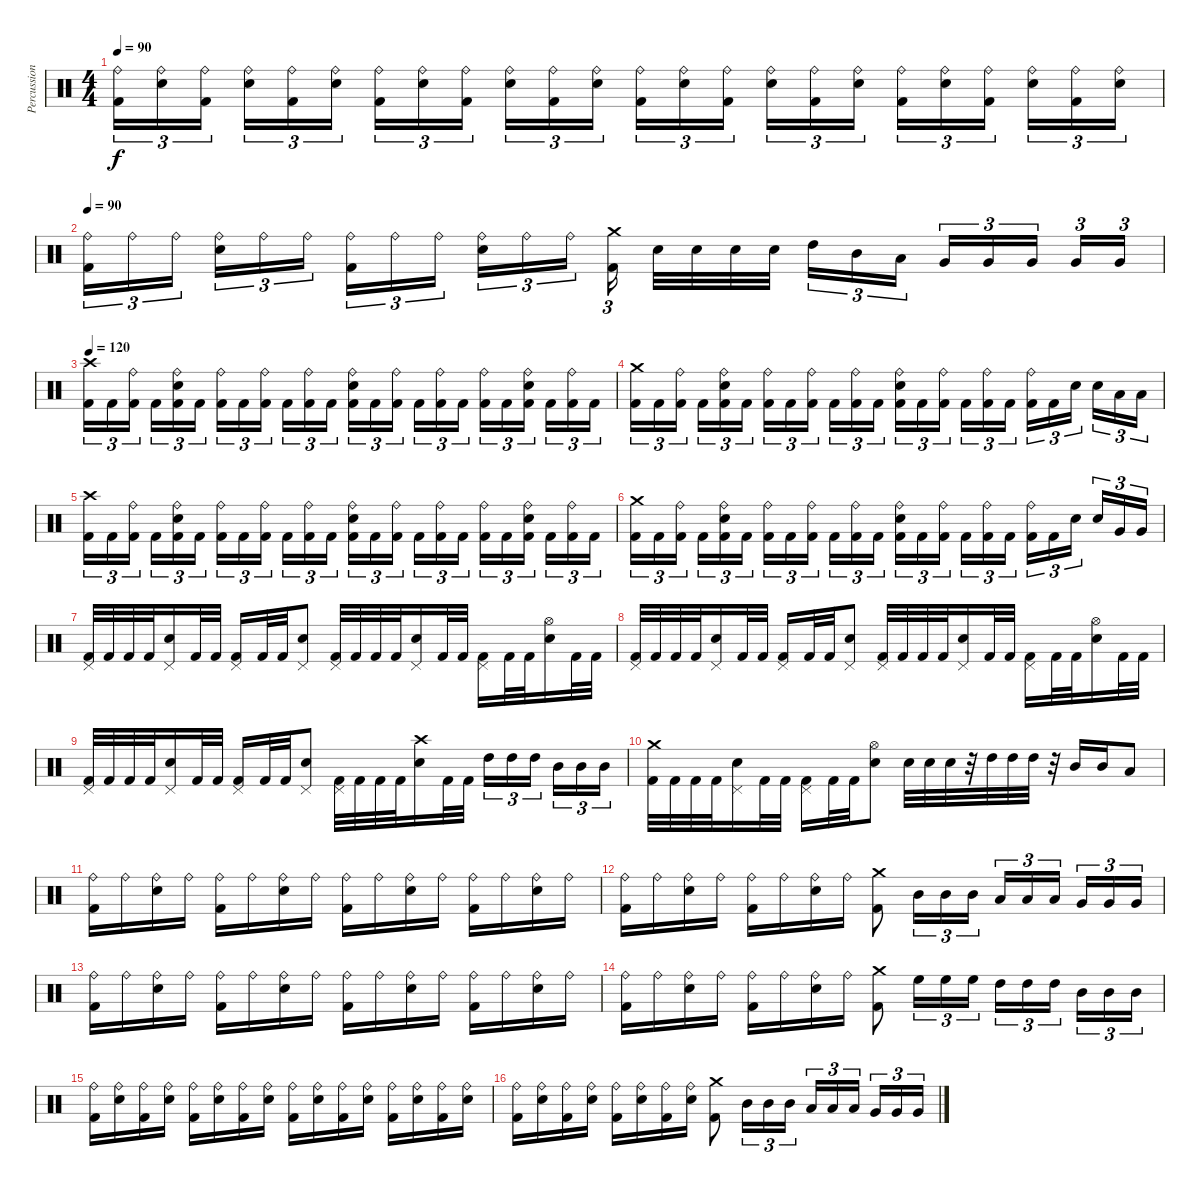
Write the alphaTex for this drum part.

\track ("Percussion" "Percussion") {instrument percussion}
\staff {score}
\articulation defaults
\ts (4 4)
\tempo 90
\clef neutral
\ks c
("Ride (bell)" "Kick (hit) 2").16{tu (3 2) dy f} ("Ride (bell)" "Electric Snare (hit)").16{tu (3 2)} ("Ride (bell)" "Kick (hit) 2").16{tu (3 2)} ("Ride (bell)" "Electric Snare (hit)").16{tu (3 2)} ("Ride (bell)" "Kick (hit) 2").16{tu (3 2)} ("Ride (bell)" "Electric Snare (hit)").16{tu (3 2)} ("Ride (bell)" "Kick (hit) 2").16{tu (3 2)} ("Ride (bell)" "Electric Snare (hit)").16{tu (3 2)} ("Ride (bell)" "Kick (hit) 2").16{tu (3 2)} ("Ride (bell)" "Electric Snare (hit)").16{tu (3 2)} ("Ride (bell)" "Kick (hit) 2").16{tu (3 2)} ("Ride (bell)" "Electric Snare (hit)").16{tu (3 2)} ("Ride (bell)" "Kick (hit) 2").16{tu (3 2)} ("Ride (bell)" "Electric Snare (hit)").16{tu (3 2)} ("Ride (bell)" "Kick (hit) 2").16{tu (3 2)} ("Ride (bell)" "Electric Snare (hit)").16{tu (3 2)} ("Ride (bell)" "Kick (hit) 2").16{tu (3 2)} ("Ride (bell)" "Electric Snare (hit)").16{tu (3 2)} ("Ride (bell)" "Kick (hit) 2").16{tu (3 2)} ("Ride (bell)" "Electric Snare (hit)").16{tu (3 2)} ("Ride (bell)" "Kick (hit) 2").16{tu (3 2)} ("Ride (bell)" "Electric Snare (hit)").16{tu (3 2)} ("Ride (bell)" "Kick (hit) 2").16{tu (3 2)} ("Ride (bell)" "Electric Snare (hit)").16{tu (3 2)} |
\tempo 90
("Ride (bell)" "Kick (hit) 2").16{tu (3 2)} "Ride (bell)".16{tu (3 2)} "Ride (bell)".16{tu (3 2)} ("Ride (bell)" "Electric Snare (hit)").16{tu (3 2)} "Ride (bell)".16{tu (3 2)} "Ride (bell)".16{tu (3 2)} ("Ride (bell)" "Kick (hit) 2").16{tu (3 2)} "Ride (bell)".16{tu (3 2)} "Ride (bell)".16{tu (3 2)} ("Ride (bell)" "Electric Snare (hit)").16{tu (3 2)} "Ride (bell)".16{tu (3 2)} "Ride (bell)".16{tu (3 2)} ("Crash medium (hit)" "Kick (hit) 2").16{tu (3 2)} "Electric Snare (hit)".32 "Electric Snare (hit)".32 "Electric Snare (hit)".32 "Electric Snare (hit)".32 "High Tom (hit)".16{tu (3 2)} "Mid Tom (hit)".16{tu (3 2)} "Low Tom (hit)".16{tu (3 2)} "Very Low Tom (hit)".16{tu (3 2)} "Very Low Tom (hit)".16{tu (3 2)} "Very Low Tom (hit)".16{tu (3 2)} "Very Low Tom (hit)".16{tu (3 2)} "Very Low Tom (hit)".16{tu (3 2)} |
\tempo 120
("Crash high (hit)" "Kick (hit) 2").16{tu (3 2)} "Kick (hit) 2".16{tu (3 2)} ("Ride (bell)" "Kick (hit) 2").16{tu (3 2)} "Kick (hit) 2".16{tu (3 2)} ("Ride (bell)" "Electric Snare (hit)" "Kick (hit) 2").16{tu (3 2)} "Kick (hit) 2".16{tu (3 2)} ("Ride (bell)" "Kick (hit) 2").16{tu (3 2)} "Kick (hit) 2".16{tu (3 2)} ("Ride (bell)" "Kick (hit) 2").16{tu (3 2)} "Kick (hit) 2".16{tu (3 2)} ("Ride (bell)" "Kick (hit) 2").16{tu (3 2)} "Kick (hit) 2".16{tu (3 2)} ("Ride (bell)" "Electric Snare (hit)" "Kick (hit) 2").16{tu (3 2)} "Kick (hit) 2".16{tu (3 2)} ("Ride (bell)" "Kick (hit) 2").16{tu (3 2)} "Kick (hit) 2".16{tu (3 2)} ("Ride (bell)" "Kick (hit) 2").16{tu (3 2)} "Kick (hit) 2".16{tu (3 2)} ("Ride (bell)" "Kick (hit) 2").16{tu (3 2)} "Kick (hit) 2".16{tu (3 2)} ("Ride (bell)" "Electric Snare (hit)" "Kick (hit) 2").16{tu (3 2)} "Kick (hit) 2".16{tu (3 2)} ("Ride (bell)" "Kick (hit) 2").16{tu (3 2)} "Kick (hit) 2".16{tu (3 2)} |
("Crash medium (hit)" "Kick (hit) 2").16{tu (3 2)} "Kick (hit) 2".16{tu (3 2)} ("Ride (bell)" "Kick (hit) 2").16{tu (3 2)} "Kick (hit) 2".16{tu (3 2)} ("Ride (bell)" "Electric Snare (hit)" "Kick (hit) 2").16{tu (3 2)} "Kick (hit) 2".16{tu (3 2)} ("Ride (bell)" "Kick (hit) 2").16{tu (3 2)} "Kick (hit) 2".16{tu (3 2)} ("Ride (bell)" "Kick (hit) 2").16{tu (3 2)} "Kick (hit) 2".16{tu (3 2)} ("Ride (bell)" "Kick (hit) 2").16{tu (3 2)} "Kick (hit) 2".16{tu (3 2)} ("Ride (bell)" "Electric Snare (hit)" "Kick (hit) 2").16{tu (3 2)} "Kick (hit) 2".16{tu (3 2)} ("Ride (bell)" "Kick (hit) 2").16{tu (3 2)} "Kick (hit) 2".16{tu (3 2)} ("Ride (bell)" "Kick (hit) 2").16{tu (3 2)} "Kick (hit) 2".16{tu (3 2)} ("Ride (bell)" "Kick (hit) 2").16{tu (3 2)} "Kick (hit) 2".16{tu (3 2)} "Electric Snare (hit)".16{tu (3 2)} "Electric Snare (hit)".16{tu (3 2)} "Low Tom (hit)".16{tu (3 2)} "Low Tom (hit)".16{tu (3 2)} |
("Crash high (hit)" "Kick (hit) 2").16{tu (3 2)} "Kick (hit) 2".16{tu (3 2)} ("Ride (bell)" "Kick (hit) 2").16{tu (3 2)} "Kick (hit) 2".16{tu (3 2)} ("Ride (bell)" "Electric Snare (hit)" "Kick (hit) 2").16{tu (3 2)} "Kick (hit) 2".16{tu (3 2)} ("Ride (bell)" "Kick (hit) 2").16{tu (3 2)} "Kick (hit) 2".16{tu (3 2)} ("Ride (bell)" "Kick (hit) 2").16{tu (3 2)} "Kick (hit) 2".16{tu (3 2)} ("Ride (bell)" "Kick (hit) 2").16{tu (3 2)} "Kick (hit) 2".16{tu (3 2)} ("Ride (bell)" "Electric Snare (hit)" "Kick (hit) 2").16{tu (3 2)} "Kick (hit) 2".16{tu (3 2)} ("Ride (bell)" "Kick (hit) 2").16{tu (3 2)} "Kick (hit) 2".16{tu (3 2)} ("Ride (bell)" "Kick (hit) 2").16{tu (3 2)} "Kick (hit) 2".16{tu (3 2)} ("Ride (bell)" "Kick (hit) 2").16{tu (3 2)} "Kick (hit) 2".16{tu (3 2)} ("Ride (bell)" "Electric Snare (hit)" "Kick (hit) 2").16{tu (3 2)} "Kick (hit) 2".16{tu (3 2)} ("Ride (bell)" "Kick (hit) 2").16{tu (3 2)} "Kick (hit) 2".16{tu (3 2)} |
("Crash medium (hit)" "Kick (hit) 2").16{tu (3 2)} "Kick (hit) 2".16{tu (3 2)} ("Ride (bell)" "Kick (hit) 2").16{tu (3 2)} "Kick (hit) 2".16{tu (3 2)} ("Ride (bell)" "Electric Snare (hit)" "Kick (hit) 2").16{tu (3 2)} "Kick (hit) 2".16{tu (3 2)} ("Ride (bell)" "Kick (hit) 2").16{tu (3 2)} "Kick (hit) 2".16{tu (3 2)} ("Ride (bell)" "Kick (hit) 2").16{tu (3 2)} "Kick (hit) 2".16{tu (3 2)} ("Ride (bell)" "Kick (hit) 2").16{tu (3 2)} "Kick (hit) 2".16{tu (3 2)} ("Ride (bell)" "Electric Snare (hit)" "Kick (hit) 2").16{tu (3 2)} "Kick (hit) 2".16{tu (3 2)} ("Ride (bell)" "Kick (hit) 2").16{tu (3 2)} "Kick (hit) 2".16{tu (3 2)} ("Ride (bell)" "Kick (hit) 2").16{tu (3 2)} "Kick (hit) 2".16{tu (3 2)} ("Ride (bell)" "Kick (hit) 2").16{tu (3 2)} "Kick (hit) 2".16{tu (3 2)} "Electric Snare (hit)".16{tu (3 2)} "Electric Snare (hit)".16{tu (3 2)} "Very Low Tom (hit)".16{tu (3 2)} "Very Low Tom (hit)".16{tu (3 2)} |
("Pedal Hi-Hat (hit)" "Kick (hit) 2").32 "Kick (hit) 2".32 "Kick (hit) 2".32 "Kick (hit) 2".32 ("Pedal Hi-Hat (hit)" "Electric Snare (hit)").16 "Kick (hit) 2".32 "Kick (hit) 2".32 ("Pedal Hi-Hat (hit)" "Kick (hit) 2").16 "Kick (hit) 2".32 "Kick (hit) 2".32 ("Pedal Hi-Hat (hit)" "Electric Snare (hit)").8 ("Pedal Hi-Hat (hit)" "Kick (hit) 2").32 "Kick (hit) 2".32 "Kick (hit) 2".32 "Kick (hit) 2".32 ("Pedal Hi-Hat (hit)" "Electric Snare (hit)").16 "Kick (hit) 2".32 "Kick (hit) 2".32 ("Pedal Hi-Hat (hit)" "Kick (hit) 2").16 "Kick (hit) 2".32 "Kick (hit) 2".32 ("Hi-Hat (open)" "Electric Snare (hit)").16 "Kick (hit) 2".32 "Kick (hit) 2".32 |
("Pedal Hi-Hat (hit)" "Kick (hit) 2").32 "Kick (hit) 2".32 "Kick (hit) 2".32 "Kick (hit) 2".32 ("Pedal Hi-Hat (hit)" "Electric Snare (hit)").16 "Kick (hit) 2".32 "Kick (hit) 2".32 ("Pedal Hi-Hat (hit)" "Kick (hit) 2").16 "Kick (hit) 2".32 "Kick (hit) 2".32 ("Pedal Hi-Hat (hit)" "Electric Snare (hit)").8 ("Pedal Hi-Hat (hit)" "Kick (hit) 2").32 "Kick (hit) 2".32 "Kick (hit) 2".32 "Kick (hit) 2".32 ("Pedal Hi-Hat (hit)" "Electric Snare (hit)").16 "Kick (hit) 2".32 "Kick (hit) 2".32 ("Pedal Hi-Hat (hit)" "Kick (hit) 2").16 "Kick (hit) 2".32 "Kick (hit) 2".32 ("Hi-Hat (open)" "Electric Snare (hit)").16 "Kick (hit) 2".32 "Kick (hit) 2".32 |
("Pedal Hi-Hat (hit)" "Kick (hit) 2").32 "Kick (hit) 2".32 "Kick (hit) 2".32 "Kick (hit) 2".32 ("Pedal Hi-Hat (hit)" "Electric Snare (hit)").16 "Kick (hit) 2".32 "Kick (hit) 2".32 ("Pedal Hi-Hat (hit)" "Kick (hit) 2").16 "Kick (hit) 2".32 "Kick (hit) 2".32 ("Pedal Hi-Hat (hit)" "Electric Snare (hit)").8 ("Pedal Hi-Hat (hit)" "Kick (hit) 2").32 "Kick (hit) 2".32 "Kick (hit) 2".32 "Kick (hit) 2".32 ("Crash high (hit)" "Electric Snare (hit)").16 "Kick (hit) 2".32 "Kick (hit) 2".32 "High Tom (hit)".16{tu (3 2)} "High Tom (hit)".16{tu (3 2)} "High Tom (hit)".16{tu (3 2)} "Mid Tom (hit)".16{tu (3 2)} "Mid Tom (hit)".16{tu (3 2)} "Mid Tom (hit)".16{tu (3 2)} |
("Crash medium (hit)" "Kick (hit) 2").32 "Kick (hit) 2".32 "Kick (hit) 2".32 "Kick (hit) 2".32 ("Pedal Hi-Hat (hit)" "Electric Snare (hit)").16 "Kick (hit) 2".32 "Kick (hit) 2".32 ("Pedal Hi-Hat (hit)" "Kick (hit) 2").16 "Kick (hit) 2".32 "Kick (hit) 2".32 ("Hi-Hat (open)" "Electric Snare (hit)").8 "Electric Snare (hit)".32 "Electric Snare (hit)".32 "Electric Snare (hit)".32 r.32 "High Tom (hit)".32 "High Tom (hit)".32 "High Tom (hit)".32 r.32 "Mid Tom (hit)".16 "Mid Tom (hit)".16 "Low Tom (hit)".8 |
("Ride (bell)" "Kick (hit) 2").16 "Ride (bell)".16 ("Ride (bell)" "Electric Snare (hit)").16 "Ride (bell)".16 ("Ride (bell)" "Kick (hit) 2").16 "Ride (bell)".16 ("Ride (bell)" "Electric Snare (hit)").16 "Ride (bell)".16 ("Ride (bell)" "Kick (hit) 2").16 "Ride (bell)".16 ("Ride (bell)" "Electric Snare (hit)").16 "Ride (bell)".16 ("Ride (bell)" "Kick (hit) 2").16 "Ride (bell)".16 ("Ride (bell)" "Electric Snare (hit)").16 "Ride (bell)".16 |
("Ride (bell)" "Kick (hit) 2").16 "Ride (bell)".16 ("Ride (bell)" "Electric Snare (hit)").16 "Ride (bell)".16 ("Ride (bell)" "Kick (hit) 2").16 "Ride (bell)".16 ("Ride (bell)" "Electric Snare (hit)").16 "Ride (bell)".16 ("Crash medium (hit)" "Kick (hit) 2").8 "Mid Tom (hit)".16{tu (3 2)} "Mid Tom (hit)".16{tu (3 2)} "Mid Tom (hit)".16{tu (3 2)} "Low Tom (hit)".16{tu (3 2)} "Low Tom (hit)".16{tu (3 2)} "Low Tom (hit)".16{tu (3 2)} "Very Low Tom (hit)".16{tu (3 2)} "Very Low Tom (hit)".16{tu (3 2)} "Very Low Tom (hit)".16{tu (3 2)} |
("Ride (bell)" "Kick (hit) 2").16 "Ride (bell)".16 ("Ride (bell)" "Electric Snare (hit)").16 "Ride (bell)".16 ("Ride (bell)" "Kick (hit) 2").16 "Ride (bell)".16 ("Ride (bell)" "Electric Snare (hit)").16 "Ride (bell)".16 ("Ride (bell)" "Kick (hit) 2").16 "Ride (bell)".16 ("Ride (bell)" "Electric Snare (hit)").16 "Ride (bell)".16 ("Ride (bell)" "Kick (hit) 2").16 "Ride (bell)".16 ("Ride (bell)" "Electric Snare (hit)").16 "Ride (bell)".16 |
("Ride (bell)" "Kick (hit) 2").16 "Ride (bell)".16 ("Ride (bell)" "Electric Snare (hit)").16 "Ride (bell)".16 ("Ride (bell)" "Kick (hit) 2").16 "Ride (bell)".16 ("Ride (bell)" "Electric Snare (hit)").16 "Ride (bell)".16 ("Crash medium (hit)" "Kick (hit) 2").8 "High Floor Tom (hit)".16{tu (3 2)} "High Floor Tom (hit)".16{tu (3 2)} "High Floor Tom (hit)".16{tu (3 2)} "High Tom (hit)".16{tu (3 2)} "High Tom (hit)".16{tu (3 2)} "High Tom (hit)".16{tu (3 2)} "Mid Tom (hit)".16{tu (3 2)} "Mid Tom (hit)".16{tu (3 2)} "Mid Tom (hit)".16{tu (3 2)} |
("Ride (bell)" "Kick (hit) 2").16 ("Ride (bell)" "Electric Snare (hit)").16 ("Ride (bell)" "Kick (hit) 2").16 ("Ride (bell)" "Electric Snare (hit)").16 ("Ride (bell)" "Kick (hit) 2").16 ("Ride (bell)" "Electric Snare (hit)").16 ("Ride (bell)" "Kick (hit) 2").16 ("Ride (bell)" "Electric Snare (hit)").16 ("Ride (bell)" "Kick (hit) 2").16 ("Ride (bell)" "Electric Snare (hit)").16 ("Ride (bell)" "Kick (hit) 2").16 ("Ride (bell)" "Electric Snare (hit)").16 ("Ride (bell)" "Kick (hit) 2").16 ("Ride (bell)" "Electric Snare (hit)").16 ("Ride (bell)" "Kick (hit) 2").16 ("Ride (bell)" "Electric Snare (hit)").16 |
("Ride (bell)" "Kick (hit) 2").16 ("Ride (bell)" "Electric Snare (hit)").16 ("Ride (bell)" "Kick (hit) 2").16 ("Ride (bell)" "Electric Snare (hit)").16 ("Ride (bell)" "Kick (hit) 2").16 ("Ride (bell)" "Electric Snare (hit)").16 ("Ride (bell)" "Kick (hit) 2").16 ("Ride (bell)" "Electric Snare (hit)").16 ("Crash medium (hit)" "Kick (hit) 2").8 "Mid Tom (hit)".16{tu (3 2)} "Mid Tom (hit)".16{tu (3 2)} "Mid Tom (hit)".16{tu (3 2)} "Low Tom (hit)".16{tu (3 2)} "Low Tom (hit)".16{tu (3 2)} "Low Tom (hit)".16{tu (3 2)} "Very Low Tom (hit)".16{tu (3 2)} "Very Low Tom (hit)".16{tu (3 2)} "Very Low Tom (hit)".16{tu (3 2)}
